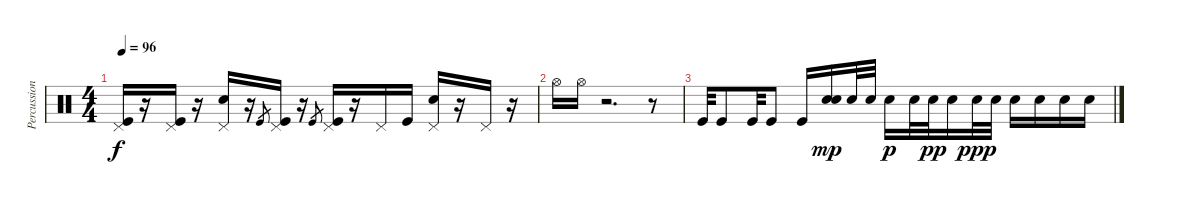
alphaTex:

\track ("Percussions" "Percussion") {instrument percussion}
\staff {score}
\articulation defaults
\ts (4 4)
\tempo 96
\clef neutral
\ks c
("Pedal Hi-Hat (hit)" "Kick (hit)").16{dy f} r.16 ("Pedal Hi-Hat (hit)" "Kick (hit)").16 r.16 ("Pedal Hi-Hat (hit)" "Electric Snare (hit)").16 r.16 "Kick (hit)".8{gr} ("Pedal Hi-Hat (hit)" "Kick (hit)").16 r.16 "Kick (hit)".8{gr} ("Pedal Hi-Hat (hit)" "Kick (hit)").16 r.16 "Pedal Hi-Hat (hit)".16 "Kick (hit)".16 ("Pedal Hi-Hat (hit)" "Electric Snare (hit)").16 r.16 "Pedal Hi-Hat (hit)".16 r.16 |
"Hi-Hat (open)".16 "Hi-Hat (open)".16 r.2{d} r.8 |
"Kick (hit)".32 "Kick (hit)".8 "Kick (hit)".32 "Kick (hit)".8 "Kick (hit)".16 ("Electric Snare (hit)" "Electric Snare (hit)").16{dy mp} "Snare (hit) 2".32 "Snare (hit) 2".32 "Electric Snare (hit)".16{dy p} "Snare (hit) 2".32 "Snare (hit) 2".32{dy pp} "Electric Snare (hit)".16 "Snare (hit) 2".32{dy ppp} "Snare (hit) 2".32 "Electric Snare (hit)".16 "Electric Snare (hit)".16 "Electric Snare (hit)".16 "Electric Snare (hit)".16
